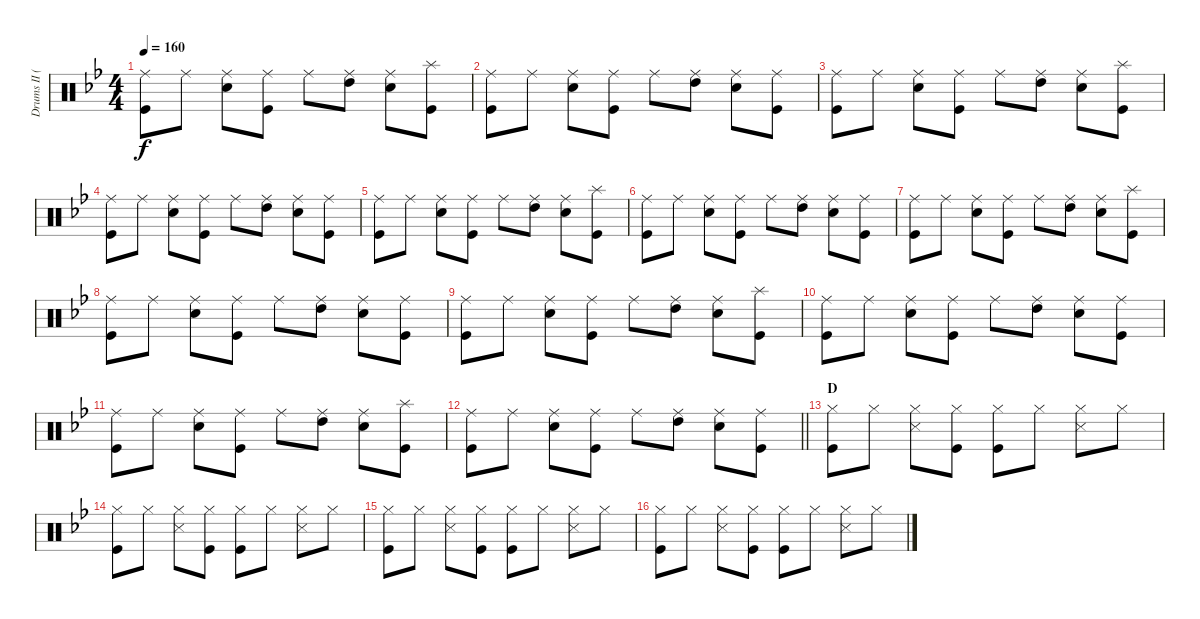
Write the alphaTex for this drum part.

\track ("Drums II (Tainaka Ritsu)" "Drums II (") {instrument percussion}
\staff {score}
\articulation defaults
\ts (4 4)
\tempo 160
\clef neutral
\ks bb
("Ride (middle)" "Kick (hit)").8{dy f} "Ride (middle)".8 ("Ride (middle)" "Snare (hit) 2").8 ("Ride (middle)" "Kick (hit)").8 "Ride (middle)".8 ("Ride (middle)" "High Tom (hit)").8 ("Ride (middle)" "Snare (hit) 2").8 ("Splash (hit)" "Kick (hit)").8 |
("Ride (middle)" "Kick (hit)").8 "Ride (middle)".8 ("Ride (middle)" "Snare (hit) 2").8 ("Ride (middle)" "Kick (hit)").8 "Ride (middle)".8 ("Ride (middle)" "High Tom (hit)").8 ("Ride (middle)" "Snare (hit) 2").8 ("Ride (middle)" "Kick (hit)").8 |
("Ride (middle)" "Kick (hit)").8 "Ride (middle)".8 ("Ride (middle)" "Snare (hit) 2").8 ("Ride (middle)" "Kick (hit)").8 "Ride (middle)".8 ("Ride (middle)" "High Tom (hit)").8 ("Ride (middle)" "Snare (hit) 2").8 ("Splash (hit)" "Kick (hit)").8 |
("Ride (middle)" "Kick (hit)").8 "Ride (middle)".8 ("Ride (middle)" "Snare (hit) 2").8 ("Ride (middle)" "Kick (hit)").8 "Ride (middle)".8 ("Ride (middle)" "High Tom (hit)").8 ("Ride (middle)" "Snare (hit) 2").8 ("Ride (middle)" "Kick (hit)").8 |
("Ride (middle)" "Kick (hit)").8 "Ride (middle)".8 ("Ride (middle)" "Snare (hit) 2").8 ("Ride (middle)" "Kick (hit)").8 "Ride (middle)".8 ("Ride (middle)" "High Tom (hit)").8 ("Ride (middle)" "Snare (hit) 2").8 ("Splash (hit)" "Kick (hit)").8 |
("Ride (middle)" "Kick (hit)").8 "Ride (middle)".8 ("Ride (middle)" "Snare (hit) 2").8 ("Ride (middle)" "Kick (hit)").8 "Ride (middle)".8 ("Ride (middle)" "High Tom (hit)").8 ("Ride (middle)" "Snare (hit) 2").8 ("Ride (middle)" "Kick (hit)").8 |
("Ride (middle)" "Kick (hit)").8 "Ride (middle)".8 ("Ride (middle)" "Snare (hit) 2").8 ("Ride (middle)" "Kick (hit)").8 "Ride (middle)".8 ("Ride (middle)" "High Tom (hit)").8 ("Ride (middle)" "Snare (hit) 2").8 ("Splash (hit)" "Kick (hit)").8 |
("Ride (middle)" "Kick (hit)").8 "Ride (middle)".8 ("Ride (middle)" "Snare (hit) 2").8 ("Ride (middle)" "Kick (hit)").8 "Ride (middle)".8 ("Ride (middle)" "High Tom (hit)").8 ("Ride (middle)" "Snare (hit) 2").8 ("Ride (middle)" "Kick (hit)").8 |
("Ride (middle)" "Kick (hit)").8 "Ride (middle)".8 ("Ride (middle)" "Snare (hit) 2").8 ("Ride (middle)" "Kick (hit)").8 "Ride (middle)".8 ("Ride (middle)" "High Tom (hit)").8 ("Ride (middle)" "Snare (hit) 2").8 ("Splash (hit)" "Kick (hit)").8 |
("Ride (middle)" "Kick (hit)").8 "Ride (middle)".8 ("Ride (middle)" "Snare (hit) 2").8 ("Ride (middle)" "Kick (hit)").8 "Ride (middle)".8 ("Ride (middle)" "High Tom (hit)").8 ("Ride (middle)" "Snare (hit) 2").8 ("Ride (middle)" "Kick (hit)").8 |
("Ride (middle)" "Kick (hit)").8 "Ride (middle)".8 ("Ride (middle)" "Snare (hit) 2").8 ("Ride (middle)" "Kick (hit)").8 "Ride (middle)".8 ("Ride (middle)" "High Tom (hit)").8 ("Ride (middle)" "Snare (hit) 2").8 ("Splash (hit)" "Kick (hit)").8 |
\barLineRight lightlight
("Ride (middle)" "Kick (hit)").8 "Ride (middle)".8 ("Ride (middle)" "Snare (hit) 2").8 ("Ride (middle)" "Kick (hit)").8 "Ride (middle)".8 ("Ride (middle)" "High Tom (hit)").8 ("Ride (middle)" "Snare (hit) 2").8 ("Ride (middle)" "Kick (hit)").8 |
\section ("" "D")
("Hi-Hat (closed)" "Kick (hit)").8 "Hi-Hat (closed)".8 ("Hi-Hat (closed)" "Snare (side stick) 3").8 ("Hi-Hat (closed)" "Kick (hit)").8 ("Hi-Hat (closed)" "Kick (hit)").8 "Hi-Hat (closed)".8 ("Hi-Hat (closed)" "Snare (side stick) 3").8 "Hi-Hat (closed)".8 |
("Hi-Hat (closed)" "Kick (hit)").8 "Hi-Hat (closed)".8 ("Hi-Hat (closed)" "Snare (side stick) 3").8 ("Hi-Hat (closed)" "Kick (hit)").8 ("Hi-Hat (closed)" "Kick (hit)").8 "Hi-Hat (closed)".8 ("Hi-Hat (closed)" "Snare (side stick) 3").8 "Hi-Hat (closed)".8 |
("Hi-Hat (closed)" "Kick (hit)").8 "Hi-Hat (closed)".8 ("Hi-Hat (closed)" "Snare (side stick) 3").8 ("Hi-Hat (closed)" "Kick (hit)").8 ("Hi-Hat (closed)" "Kick (hit)").8 "Hi-Hat (closed)".8 ("Hi-Hat (closed)" "Snare (side stick) 3").8 "Hi-Hat (closed)".8 |
("Hi-Hat (closed)" "Kick (hit)").8 "Hi-Hat (closed)".8 ("Hi-Hat (closed)" "Snare (side stick) 3").8 ("Hi-Hat (closed)" "Kick (hit)").8 ("Hi-Hat (closed)" "Kick (hit)").8 "Hi-Hat (closed)".8 ("Hi-Hat (closed)" "Snare (side stick) 3").8 "Hi-Hat (closed)".8
